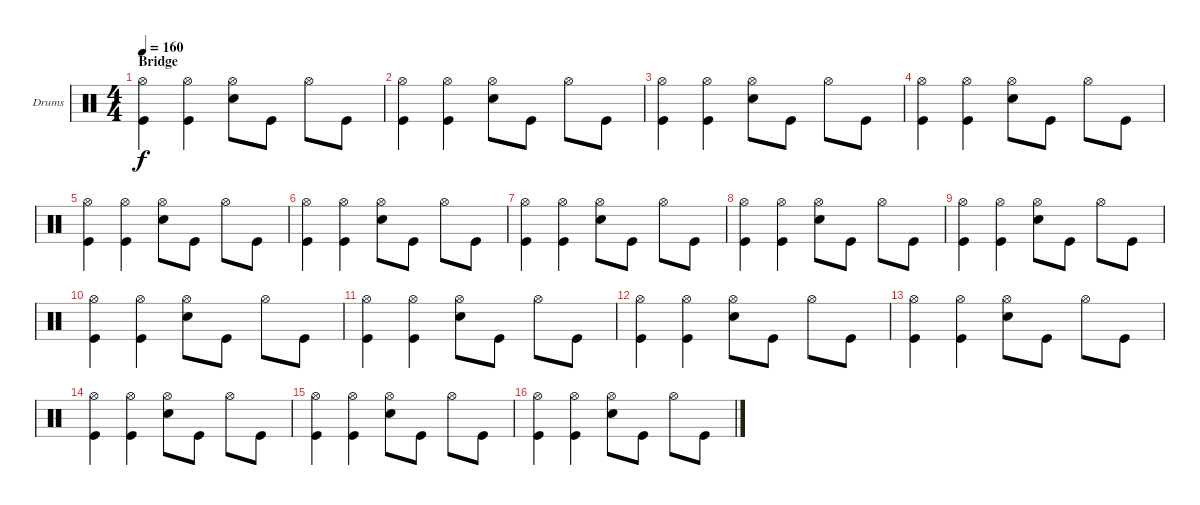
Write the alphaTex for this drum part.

\bracketExtendMode groupsimilarinstruments
\firstSystemTrackNameOrientation horizontal
\otherSystemsTrackNameOrientation horizontal
\track ("Lars Ulrich (Drum)" "Drums") {instrument percussion}
\staff {score}
\articulation defaults
\ts (4 4)
\section ("" "Bridge")
\tempo 160
\clef neutral
\ks c
("Hi-Hat (open)" "Kick (hit)").4{dy f} ("Hi-Hat (open)" "Kick (hit)").4 ("Hi-Hat (open)" "Snare (hit) 2").8 "Kick (hit)".8 "Hi-Hat (open)".8 "Kick (hit)".8 |
("Hi-Hat (open)" "Kick (hit)").4 ("Hi-Hat (open)" "Kick (hit)").4 ("Hi-Hat (open)" "Snare (hit) 2").8 "Kick (hit)".8 "Hi-Hat (open)".8 "Kick (hit)".8 |
("Hi-Hat (open)" "Kick (hit)").4 ("Hi-Hat (open)" "Kick (hit)").4 ("Hi-Hat (open)" "Snare (hit) 2").8 "Kick (hit)".8 "Hi-Hat (open)".8 "Kick (hit)".8 |
("Hi-Hat (open)" "Kick (hit)").4 ("Hi-Hat (open)" "Kick (hit)").4 ("Hi-Hat (open)" "Snare (hit) 2").8 "Kick (hit)".8 "Hi-Hat (open)".8 "Kick (hit)".8 |
("Hi-Hat (open)" "Kick (hit)").4 ("Hi-Hat (open)" "Kick (hit)").4 ("Hi-Hat (open)" "Snare (hit) 2").8 "Kick (hit)".8 "Hi-Hat (open)".8 "Kick (hit)".8 |
("Hi-Hat (open)" "Kick (hit)").4 ("Hi-Hat (open)" "Kick (hit)").4 ("Hi-Hat (open)" "Snare (hit) 2").8 "Kick (hit)".8 "Hi-Hat (open)".8 "Kick (hit)".8 |
("Hi-Hat (open)" "Kick (hit)").4 ("Hi-Hat (open)" "Kick (hit)").4 ("Hi-Hat (open)" "Snare (hit) 2").8 "Kick (hit)".8 "Hi-Hat (open)".8 "Kick (hit)".8 |
("Hi-Hat (open)" "Kick (hit)").4 ("Hi-Hat (open)" "Kick (hit)").4 ("Hi-Hat (open)" "Snare (hit) 2").8 "Kick (hit)".8 "Hi-Hat (open)".8 "Kick (hit)".8 |
("Hi-Hat (open)" "Kick (hit)").4 ("Hi-Hat (open)" "Kick (hit)").4 ("Hi-Hat (open)" "Snare (hit) 2").8 "Kick (hit)".8 "Hi-Hat (open)".8 "Kick (hit)".8 |
("Hi-Hat (open)" "Kick (hit)").4 ("Hi-Hat (open)" "Kick (hit)").4 ("Hi-Hat (open)" "Snare (hit) 2").8 "Kick (hit)".8 "Hi-Hat (open)".8 "Kick (hit)".8 |
("Hi-Hat (open)" "Kick (hit)").4 ("Hi-Hat (open)" "Kick (hit)").4 ("Hi-Hat (open)" "Snare (hit) 2").8 "Kick (hit)".8 "Hi-Hat (open)".8 "Kick (hit)".8 |
("Hi-Hat (open)" "Kick (hit)").4 ("Hi-Hat (open)" "Kick (hit)").4 ("Hi-Hat (open)" "Snare (hit) 2").8 "Kick (hit)".8 "Hi-Hat (open)".8 "Kick (hit)".8 |
("Hi-Hat (open)" "Kick (hit)").4 ("Hi-Hat (open)" "Kick (hit)").4 ("Hi-Hat (open)" "Snare (hit) 2").8 "Kick (hit)".8 "Hi-Hat (open)".8 "Kick (hit)".8 |
("Hi-Hat (open)" "Kick (hit)").4 ("Hi-Hat (open)" "Kick (hit)").4 ("Hi-Hat (open)" "Snare (hit) 2").8 "Kick (hit)".8 "Hi-Hat (open)".8 "Kick (hit)".8 |
("Hi-Hat (open)" "Kick (hit)").4 ("Hi-Hat (open)" "Kick (hit)").4 ("Hi-Hat (open)" "Snare (hit) 2").8 "Kick (hit)".8 "Hi-Hat (open)".8 "Kick (hit)".8 |
("Hi-Hat (open)" "Kick (hit)").4 ("Hi-Hat (open)" "Kick (hit)").4 ("Hi-Hat (open)" "Snare (hit) 2").8 "Kick (hit)".8 "Hi-Hat (open)".8 "Kick (hit)".8
